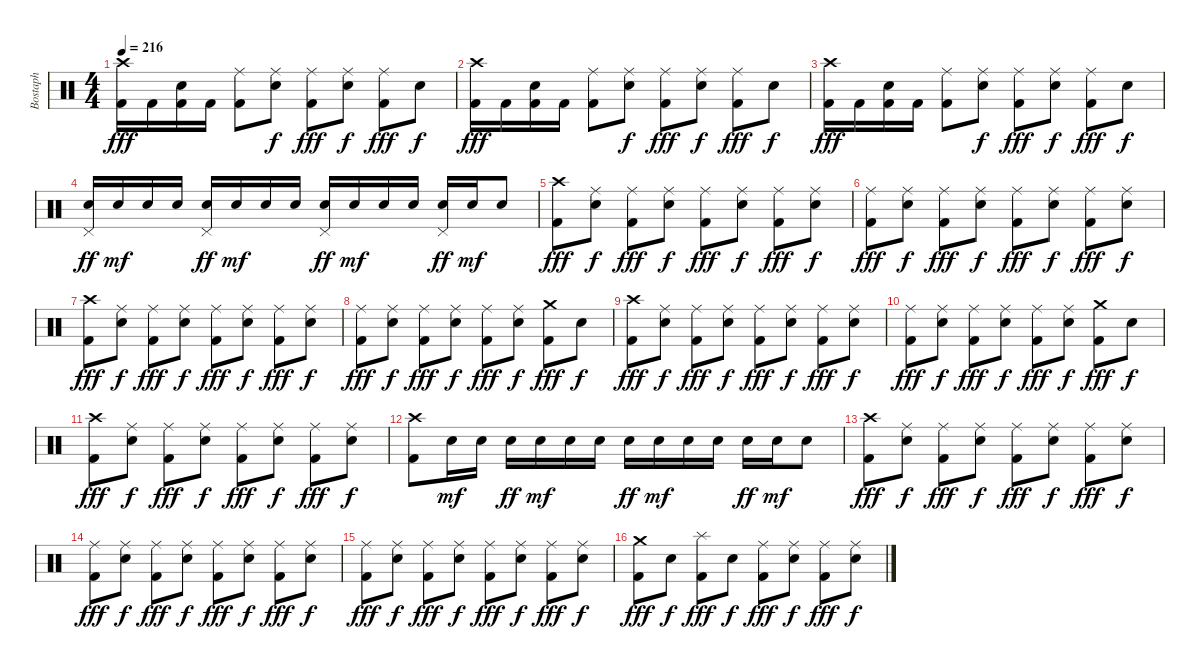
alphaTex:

\track ("Bostaph" "Bostaph") {instrument percussion}
\staff {score}
\articulation defaults
\ts (4 4)
\tempo 216
\clef neutral
\ks c
("Crash high (hit)" "Kick (hit) 2").16{dy fff} "Kick (hit) 2".16 ("Electric Snare (hit)" "Kick (hit) 2").16 "Kick (hit) 2".16 ("Ride (middle)" "Kick (hit) 2").8 ("Ride (middle)" "Electric Snare (hit)").8{dy f} ("Ride (middle)" "Kick (hit) 2").8{dy fff} ("Ride (middle)" "Electric Snare (hit)").8{dy f} ("Ride (middle)" "Kick (hit) 2").8{dy fff} "Electric Snare (hit)".8{dy f} |
("Crash high (hit)" "Kick (hit) 2").16{dy fff} "Kick (hit) 2".16 ("Electric Snare (hit)" "Kick (hit) 2").16 "Kick (hit) 2".16 ("Ride (middle)" "Kick (hit) 2").8 ("Ride (middle)" "Electric Snare (hit)").8{dy f} ("Ride (middle)" "Kick (hit) 2").8{dy fff} ("Ride (middle)" "Electric Snare (hit)").8{dy f} ("Ride (middle)" "Kick (hit) 2").8{dy fff} "Electric Snare (hit)".8{dy f} |
("Crash high (hit)" "Kick (hit) 2").16{dy fff} "Kick (hit) 2".16 ("Electric Snare (hit)" "Kick (hit) 2").16 "Kick (hit) 2".16 ("Ride (middle)" "Kick (hit) 2").8 ("Ride (middle)" "Electric Snare (hit)").8{dy f} ("Ride (middle)" "Kick (hit) 2").8{dy fff} ("Ride (middle)" "Electric Snare (hit)").8{dy f} ("Ride (middle)" "Kick (hit) 2").8{dy fff} "Electric Snare (hit)".8{dy f} |
("Pedal Hi-Hat (hit)" "Electric Snare (hit)").16{dy ff} "Electric Snare (hit)".16{dy mf} "Electric Snare (hit)".16 "Electric Snare (hit)".16 ("Pedal Hi-Hat (hit)" "Electric Snare (hit)").16{dy ff} "Electric Snare (hit)".16{dy mf} "Electric Snare (hit)".16 "Electric Snare (hit)".16 ("Pedal Hi-Hat (hit)" "Electric Snare (hit)").16{dy ff} "Electric Snare (hit)".16{dy mf} "Electric Snare (hit)".16 "Electric Snare (hit)".16 ("Pedal Hi-Hat (hit)" "Electric Snare (hit)").16{dy ff} "Electric Snare (hit)".16{dy mf} "Electric Snare (hit)".8 |
("Crash high (hit)" "Kick (hit) 2").8{dy fff} ("Ride (middle)" "Electric Snare (hit)").8{dy f} ("Ride (middle)" "Kick (hit) 2").8{dy fff} ("Ride (middle)" "Electric Snare (hit)").8{dy f} ("Ride (middle)" "Kick (hit) 2").8{dy fff} ("Ride (middle)" "Electric Snare (hit)").8{dy f} ("Ride (middle)" "Kick (hit) 2").8{dy fff} ("Ride (middle)" "Electric Snare (hit)").8{dy f} |
("Ride (middle)" "Kick (hit) 2").8{dy fff} ("Ride (middle)" "Electric Snare (hit)").8{dy f} ("Ride (middle)" "Kick (hit) 2").8{dy fff} ("Ride (middle)" "Electric Snare (hit)").8{dy f} ("Ride (middle)" "Kick (hit) 2").8{dy fff} ("Ride (middle)" "Electric Snare (hit)").8{dy f} ("Ride (middle)" "Kick (hit) 2").8{dy fff} ("Ride (middle)" "Electric Snare (hit)").8{dy f} |
("Crash high (hit)" "Kick (hit) 2").8{dy fff} ("Ride (middle)" "Electric Snare (hit)").8{dy f} ("Ride (middle)" "Kick (hit) 2").8{dy fff} ("Ride (middle)" "Electric Snare (hit)").8{dy f} ("Ride (middle)" "Kick (hit) 2").8{dy fff} ("Ride (middle)" "Electric Snare (hit)").8{dy f} ("Ride (middle)" "Kick (hit) 2").8{dy fff} ("Ride (middle)" "Electric Snare (hit)").8{dy f} |
("Ride (middle)" "Kick (hit) 2").8{dy fff} ("Ride (middle)" "Electric Snare (hit)").8{dy f} ("Ride (middle)" "Kick (hit) 2").8{dy fff} ("Ride (middle)" "Electric Snare (hit)").8{dy f} ("Ride (middle)" "Kick (hit) 2").8{dy fff} ("Ride (middle)" "Electric Snare (hit)").8{dy f} ("Crash medium (hit)" "Kick (hit) 2").8{dy fff} "Electric Snare (hit)".8{dy f} |
("Crash high (hit)" "Kick (hit) 2").8{dy fff} ("Ride (middle)" "Electric Snare (hit)").8{dy f} ("Ride (middle)" "Kick (hit) 2").8{dy fff} ("Ride (middle)" "Electric Snare (hit)").8{dy f} ("Ride (middle)" "Kick (hit) 2").8{dy fff} ("Ride (middle)" "Electric Snare (hit)").8{dy f} ("Ride (middle)" "Kick (hit) 2").8{dy fff} ("Ride (middle)" "Electric Snare (hit)").8{dy f} |
("Ride (middle)" "Kick (hit) 2").8{dy fff} ("Ride (middle)" "Electric Snare (hit)").8{dy f} ("Ride (middle)" "Kick (hit) 2").8{dy fff} ("Ride (middle)" "Electric Snare (hit)").8{dy f} ("Ride (middle)" "Kick (hit) 2").8{dy fff} ("Ride (middle)" "Electric Snare (hit)").8{dy f} ("Crash medium (hit)" "Kick (hit) 2").8{dy fff} "Electric Snare (hit)".8{dy f} |
("Crash high (hit)" "Kick (hit) 2").8{dy fff} ("Ride (middle)" "Electric Snare (hit)").8{dy f} ("Ride (middle)" "Kick (hit) 2").8{dy fff} ("Ride (middle)" "Electric Snare (hit)").8{dy f} ("Ride (middle)" "Kick (hit) 2").8{dy fff} ("Ride (middle)" "Electric Snare (hit)").8{dy f} ("Ride (middle)" "Kick (hit) 2").8{dy fff} ("Ride (middle)" "Electric Snare (hit)").8{dy f} |
("Crash high (hit)" "Kick (hit) 2").8 "Electric Snare (hit)".16{dy mf} "Electric Snare (hit)".16 "Electric Snare (hit)".16{dy ff} "Electric Snare (hit)".16{dy mf} "Electric Snare (hit)".16 "Electric Snare (hit)".16 "Electric Snare (hit)".16{dy ff} "Electric Snare (hit)".16{dy mf} "Electric Snare (hit)".16 "Electric Snare (hit)".16 "Electric Snare (hit)".16{dy ff} "Electric Snare (hit)".16{dy mf} "Electric Snare (hit)".8 |
("Crash high (hit)" "Kick (hit) 2").8{dy fff} ("Ride (middle)" "Electric Snare (hit)").8{dy f} ("Ride (middle)" "Kick (hit) 2").8{dy fff} ("Ride (middle)" "Electric Snare (hit)").8{dy f} ("Ride (middle)" "Kick (hit) 2").8{dy fff} ("Ride (middle)" "Electric Snare (hit)").8{dy f} ("Ride (middle)" "Kick (hit) 2").8{dy fff} ("Ride (middle)" "Electric Snare (hit)").8{dy f} |
("Ride (middle)" "Kick (hit) 2").8{dy fff} ("Ride (middle)" "Electric Snare (hit)").8{dy f} ("Ride (middle)" "Kick (hit) 2").8{dy fff} ("Ride (middle)" "Electric Snare (hit)").8{dy f} ("Ride (middle)" "Kick (hit) 2").8{dy fff} ("Ride (middle)" "Electric Snare (hit)").8{dy f} ("Ride (middle)" "Kick (hit) 2").8{dy fff} ("Ride (middle)" "Electric Snare (hit)").8{dy f} |
("Ride (middle)" "Kick (hit) 2").8{dy fff} ("Ride (middle)" "Electric Snare (hit)").8{dy f} ("Ride (middle)" "Kick (hit) 2").8{dy fff} ("Ride (middle)" "Electric Snare (hit)").8{dy f} ("Ride (middle)" "Kick (hit) 2").8{dy fff} ("Ride (middle)" "Electric Snare (hit)").8{dy f} ("Ride (middle)" "Kick (hit) 2").8{dy fff} ("Ride (middle)" "Electric Snare (hit)").8{dy f} |
("Crash medium (hit)" "Kick (hit) 2").8{dy fff} "Electric Snare (hit)".8{dy f} ("Splash (hit)" "Kick (hit) 2").8{dy fff} "Electric Snare (hit)".8{dy f} ("Ride (middle)" "Kick (hit) 2").8{dy fff} ("Ride (middle)" "Electric Snare (hit)").8{dy f} ("Ride (middle)" "Kick (hit) 2").8{dy fff} ("Ride (middle)" "Electric Snare (hit)").8{dy f}
